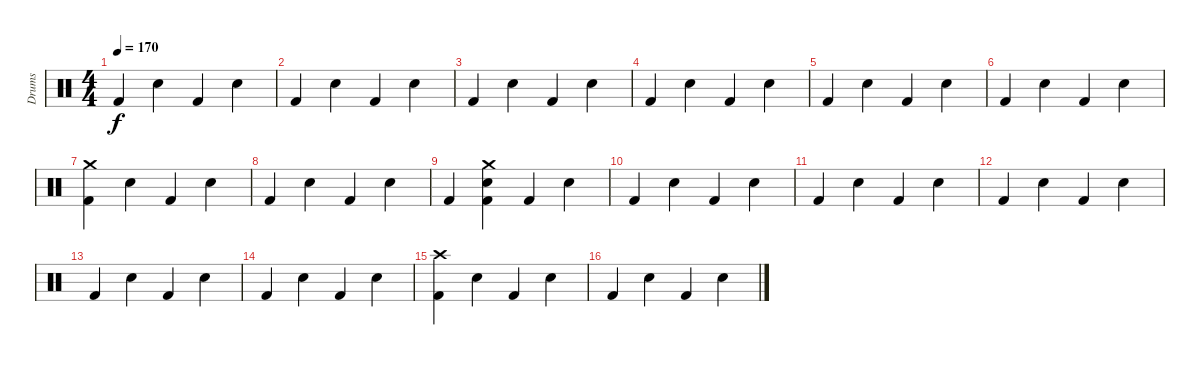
\track ("Drums" "Drums") {instrument percussion}
\staff {score}
\articulation defaults
\ts (4 4)
\tempo 170
\clef neutral
\ks c "Kick (hit) 2".4{dy f} "Snare (hit) 2".4 "Kick (hit) 2".4 "Snare (hit) 2".4
|
"Kick (hit) 2".4 "Snare (hit) 2".4 "Kick (hit) 2".4 "Snare (hit) 2".4 |
"Kick (hit) 2".4 "Snare (hit) 2".4 "Kick (hit) 2".4 "Snare (hit) 2".4 |
"Kick (hit) 2".4 "Snare (hit) 2".4 "Kick (hit) 2".4 "Snare (hit) 2".4 |
"Kick (hit) 2".4 "Snare (hit) 2".4 "Kick (hit) 2".4 "Snare (hit) 2".4 |
"Kick (hit) 2".4 "Snare (hit) 2".4 "Kick (hit) 2".4 "Snare (hit) 2".4 |
("Crash medium (hit)" "Kick (hit) 2").4 "Snare (hit) 2".4 "Kick (hit) 2".4 "Snare (hit) 2".4 |
"Kick (hit) 2".4 "Snare (hit) 2".4 "Kick (hit) 2".4 "Snare (hit) 2".4 |
"Kick (hit) 2".4 ("Kick (hit) 2" "Crash medium (hit)" "Snare (hit) 2").4 "Kick (hit) 2".4 "Snare (hit) 2".4 |
"Kick (hit) 2".4 "Snare (hit) 2".4 "Kick (hit) 2".4 "Snare (hit) 2".4 |
"Kick (hit) 2".4 "Snare (hit) 2".4 "Kick (hit) 2".4 "Snare (hit) 2".4 |
"Kick (hit) 2".4 "Snare (hit) 2".4 "Kick (hit) 2".4 "Snare (hit) 2".4 |
"Kick (hit) 2".4 "Snare (hit) 2".4 "Kick (hit) 2".4 "Snare (hit) 2".4 |
"Kick (hit) 2".4 "Snare (hit) 2".4 "Kick (hit) 2".4 "Snare (hit) 2".4 |
("Crash high (hit)" "Kick (hit) 2").4 "Snare (hit) 2".4 "Kick (hit) 2".4 "Snare (hit) 2".4 |
"Kick (hit) 2".4 "Snare (hit) 2".4 "Kick (hit) 2".4 "Snare (hit) 2".4
